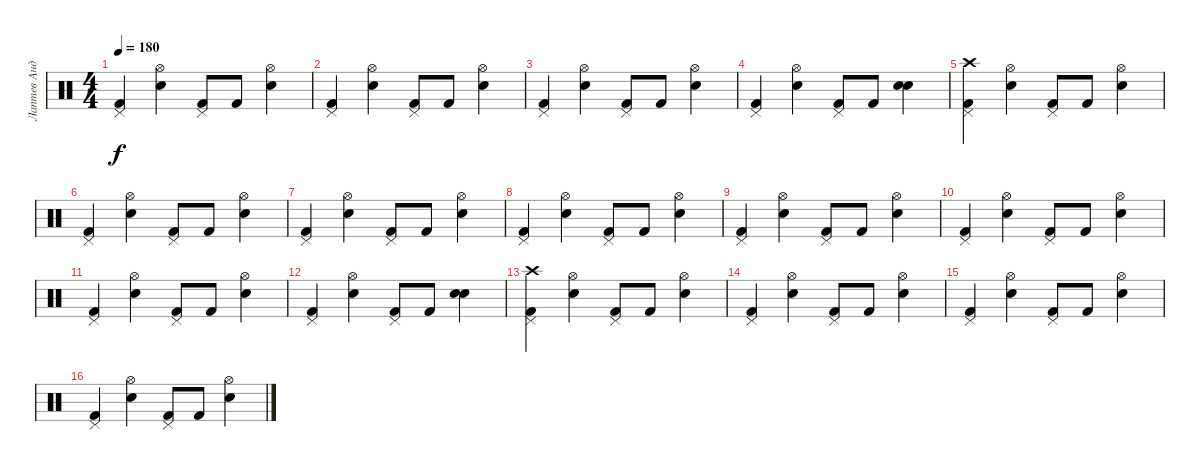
\track ("Лаптев Андрей" "Лаптев Анд") {instrument percussion}
\staff {score}
\articulation defaults
\ts (4 4)
\tempo 180
\clef neutral
\ks c
("Kick (hit) 2" "Pedal Hi-Hat (hit)").4{dy f} ("Snare (hit) 2" "Hi-Hat (open)").4 ("Kick (hit) 2" "Pedal Hi-Hat (hit)").8 "Kick (hit) 2".8 ("Snare (hit) 2" "Hi-Hat (open)").4 |
("Kick (hit) 2" "Pedal Hi-Hat (hit)").4 ("Snare (hit) 2" "Hi-Hat (open)").4 ("Kick (hit) 2" "Pedal Hi-Hat (hit)").8 "Kick (hit) 2".8 ("Snare (hit) 2" "Hi-Hat (open)").4 |
("Kick (hit) 2" "Pedal Hi-Hat (hit)").4 ("Snare (hit) 2" "Hi-Hat (open)").4 ("Kick (hit) 2" "Pedal Hi-Hat (hit)").8 "Kick (hit) 2".8 ("Snare (hit) 2" "Hi-Hat (open)").4 |
("Kick (hit) 2" "Pedal Hi-Hat (hit)").4 ("Snare (hit) 2" "Hi-Hat (open)").4 ("Kick (hit) 2" "Pedal Hi-Hat (hit)").8 "Kick (hit) 2".8 ("Snare (hit) 2" "Electric Snare (hit)").4 |
("Kick (hit) 2" "Crash high (hit)" "Pedal Hi-Hat (hit)").4 ("Snare (hit) 2" "Hi-Hat (open)").4 ("Kick (hit) 2" "Pedal Hi-Hat (hit)").8 "Kick (hit) 2".8 ("Snare (hit) 2" "Hi-Hat (open)").4 |
("Kick (hit) 2" "Pedal Hi-Hat (hit)").4 ("Snare (hit) 2" "Hi-Hat (open)").4 ("Kick (hit) 2" "Pedal Hi-Hat (hit)").8 "Kick (hit) 2".8 ("Snare (hit) 2" "Hi-Hat (open)").4 |
("Kick (hit) 2" "Pedal Hi-Hat (hit)").4 ("Snare (hit) 2" "Hi-Hat (open)").4 ("Kick (hit) 2" "Pedal Hi-Hat (hit)").8 "Kick (hit) 2".8 ("Snare (hit) 2" "Hi-Hat (open)").4 |
("Kick (hit) 2" "Pedal Hi-Hat (hit)").4 ("Snare (hit) 2" "Hi-Hat (open)").4 ("Kick (hit) 2" "Pedal Hi-Hat (hit)").8 "Kick (hit) 2".8 ("Snare (hit) 2" "Hi-Hat (open)").4 |
("Kick (hit) 2" "Pedal Hi-Hat (hit)").4 ("Snare (hit) 2" "Hi-Hat (open)").4 ("Kick (hit) 2" "Pedal Hi-Hat (hit)").8 "Kick (hit) 2".8 ("Snare (hit) 2" "Hi-Hat (open)").4 |
("Kick (hit) 2" "Pedal Hi-Hat (hit)").4 ("Snare (hit) 2" "Hi-Hat (open)").4 ("Kick (hit) 2" "Pedal Hi-Hat (hit)").8 "Kick (hit) 2".8 ("Snare (hit) 2" "Hi-Hat (open)").4 |
("Kick (hit) 2" "Pedal Hi-Hat (hit)").4 ("Snare (hit) 2" "Hi-Hat (open)").4 ("Kick (hit) 2" "Pedal Hi-Hat (hit)").8 "Kick (hit) 2".8 ("Snare (hit) 2" "Hi-Hat (open)").4 |
("Kick (hit) 2" "Pedal Hi-Hat (hit)").4 ("Snare (hit) 2" "Hi-Hat (open)").4 ("Kick (hit) 2" "Pedal Hi-Hat (hit)").8 "Kick (hit) 2".8 ("Snare (hit) 2" "Electric Snare (hit)").4 |
("Kick (hit) 2" "Crash high (hit)" "Pedal Hi-Hat (hit)").4 ("Snare (hit) 2" "Hi-Hat (open)").4 ("Kick (hit) 2" "Pedal Hi-Hat (hit)").8 "Kick (hit) 2".8 ("Snare (hit) 2" "Hi-Hat (open)").4 |
("Kick (hit) 2" "Pedal Hi-Hat (hit)").4 ("Snare (hit) 2" "Hi-Hat (open)").4 ("Kick (hit) 2" "Pedal Hi-Hat (hit)").8 "Kick (hit) 2".8 ("Snare (hit) 2" "Hi-Hat (open)").4 |
("Kick (hit) 2" "Pedal Hi-Hat (hit)").4 ("Snare (hit) 2" "Hi-Hat (open)").4 ("Kick (hit) 2" "Pedal Hi-Hat (hit)").8 "Kick (hit) 2".8 ("Snare (hit) 2" "Hi-Hat (open)").4 |
("Kick (hit) 2" "Pedal Hi-Hat (hit)").4 ("Snare (hit) 2" "Hi-Hat (open)").4 ("Kick (hit) 2" "Pedal Hi-Hat (hit)").8 "Kick (hit) 2".8 ("Snare (hit) 2" "Hi-Hat (open)").4
